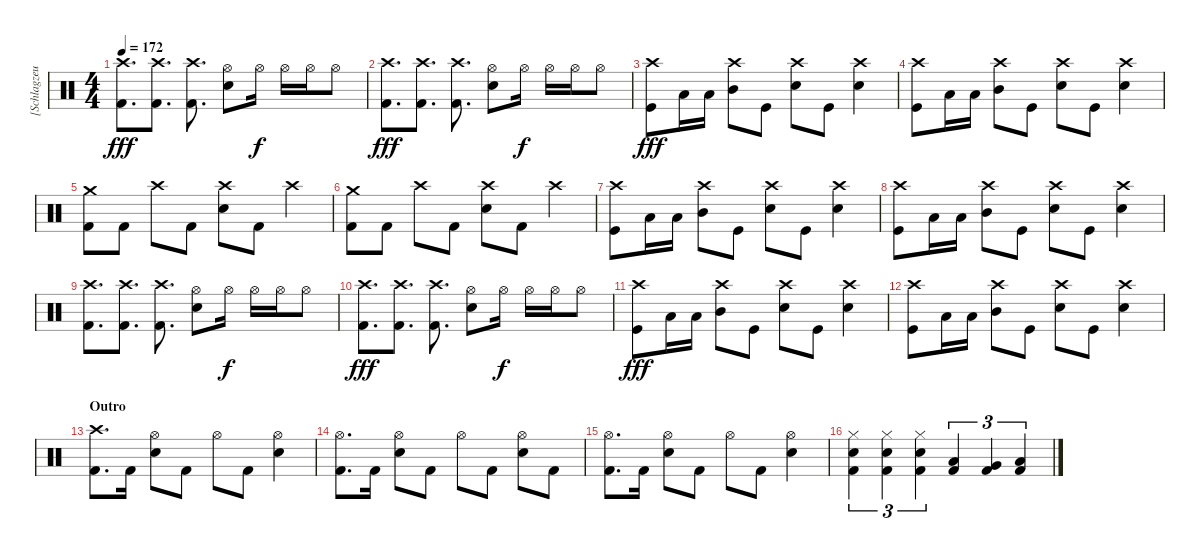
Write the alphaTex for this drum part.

\track ("[Schlagzeug]" "[Schlagzeu") {instrument percussion}
\staff {score}
\articulation defaults
\ts (4 4)
\tempo 172
\clef neutral
\ks c
("Crash high (hit)" "Kick (hit) 2").8{d dy fff} ("Crash high (hit)" "Kick (hit) 2").8{d} ("Crash high (hit)" "Kick (hit) 2").8{d} ("Hi-Hat (open)" "Electric Snare (hit)").8 "Hi-Hat (open)".16{dy f} "Hi-Hat (open)".16 "Hi-Hat (open)".16 "Hi-Hat (open)".8 |
("Crash high (hit)" "Kick (hit) 2").8{d dy fff} ("Crash high (hit)" "Kick (hit) 2").8{d} ("Crash high (hit)" "Kick (hit) 2").8{d} ("Hi-Hat (open)" "Electric Snare (hit)").8 "Hi-Hat (open)".16{dy f} "Hi-Hat (open)".16 "Hi-Hat (open)".16 "Hi-Hat (open)".8 |
("Kick (hit)" "Crash high (hit)").8{dy fff} "Low Floor Tom (hit)".16 "Low Floor Tom (hit)".16 ("Mid Tom (hit)" "Crash high (hit)").8 "Kick (hit)".8 ("Electric Snare (hit)" "Crash high (hit)").8 "Kick (hit)".8 ("Electric Snare (hit)" "Crash high (hit)").4 |
("Kick (hit)" "Crash high (hit)").8 "Low Floor Tom (hit)".16 "Low Floor Tom (hit)".16 ("Mid Tom (hit)" "Crash high (hit)").8 "Kick (hit)".8 ("Electric Snare (hit)" "Crash high (hit)").8 "Kick (hit)".8 ("Electric Snare (hit)" "Crash high (hit)").4 |
("Crash medium (hit)" "Kick (hit) 2").8 "Kick (hit) 2".8 "Crash high (hit)".8 "Kick (hit) 2".8 ("Crash high (hit)" "Electric Snare (hit)").8 "Kick (hit) 2".8 "Crash high (hit)".4 |
("Crash medium (hit)" "Kick (hit) 2").8 "Kick (hit) 2".8 "Crash high (hit)".8 "Kick (hit) 2".8 ("Crash high (hit)" "Electric Snare (hit)").8 "Kick (hit) 2".8 "Crash high (hit)".4 |
("Kick (hit)" "Crash high (hit)").8 "Low Floor Tom (hit)".16 "Low Floor Tom (hit)".16 ("Mid Tom (hit)" "Crash high (hit)").8 "Kick (hit)".8 ("Electric Snare (hit)" "Crash high (hit)").8 "Kick (hit)".8 ("Electric Snare (hit)" "Crash high (hit)").4 |
("Kick (hit)" "Crash high (hit)").8 "Low Floor Tom (hit)".16 "Low Floor Tom (hit)".16 ("Mid Tom (hit)" "Crash high (hit)").8 "Kick (hit)".8 ("Electric Snare (hit)" "Crash high (hit)").8 "Kick (hit)".8 ("Electric Snare (hit)" "Crash high (hit)").4 |
("Crash high (hit)" "Kick (hit) 2").8{d} ("Crash high (hit)" "Kick (hit) 2").8{d} ("Crash high (hit)" "Kick (hit) 2").8{d} ("Hi-Hat (open)" "Electric Snare (hit)").8 "Hi-Hat (open)".16{dy f} "Hi-Hat (open)".16 "Hi-Hat (open)".16 "Hi-Hat (open)".8 |
("Crash high (hit)" "Kick (hit) 2").8{d dy fff} ("Crash high (hit)" "Kick (hit) 2").8{d} ("Crash high (hit)" "Kick (hit) 2").8{d} ("Hi-Hat (open)" "Electric Snare (hit)").8 "Hi-Hat (open)".16{dy f} "Hi-Hat (open)".16 "Hi-Hat (open)".16 "Hi-Hat (open)".8 |
("Kick (hit)" "Crash high (hit)").8{dy fff} "Low Floor Tom (hit)".16 "Low Floor Tom (hit)".16 ("Mid Tom (hit)" "Crash high (hit)").8 "Kick (hit)".8 ("Electric Snare (hit)" "Crash high (hit)").8 "Kick (hit)".8 ("Electric Snare (hit)" "Crash high (hit)").4 |
("Kick (hit)" "Crash high (hit)").8 "Low Floor Tom (hit)".16 "Low Floor Tom (hit)".16 ("Mid Tom (hit)" "Crash high (hit)").8 "Kick (hit)".8 ("Electric Snare (hit)" "Crash high (hit)").8 "Kick (hit)".8 ("Electric Snare (hit)" "Crash high (hit)").4 |
\section ("" "Outro")
("Crash high (hit)" "Kick (hit) 2").8{d} "Kick (hit) 2".16 ("Hi-Hat (open)" "Electric Snare (hit)").8 "Kick (hit) 2".8 "Hi-Hat (open)".8 "Kick (hit) 2".8 ("Hi-Hat (open)" "Electric Snare (hit)").4 |
("Hi-Hat (open)" "Kick (hit) 2").8{d} "Kick (hit) 2".16 ("Hi-Hat (open)" "Electric Snare (hit)").8 "Kick (hit) 2".8 "Hi-Hat (open)".8 "Kick (hit) 2".8 ("Hi-Hat (open)" "Electric Snare (hit)").8 "Kick (hit) 2".8 |
("Hi-Hat (open)" "Kick (hit) 2").8{d} "Kick (hit) 2".16 ("Hi-Hat (open)" "Electric Snare (hit)").8 "Kick (hit) 2".8 "Hi-Hat (open)".8 "Kick (hit) 2".8 ("Hi-Hat (open)" "Electric Snare (hit)").4 |
("Hi-Hat (closed)" "Electric Snare (hit)" "Kick (hit) 2").4{tu (3 2)} ("Hi-Hat (closed)" "Electric Snare (hit)" "Kick (hit) 2").4{tu (3 2)} ("Hi-Hat (closed)" "Electric Snare (hit)" "Kick (hit) 2").4{tu (3 2)} ("Low Tom (hit)" "Kick (hit) 2").4{tu (3 2)} ("Very Low Tom (hit)" "Kick (hit) 2").4{tu (3 2)} ("Low Tom (hit)" "Kick (hit) 2").4{tu (3 2)}
